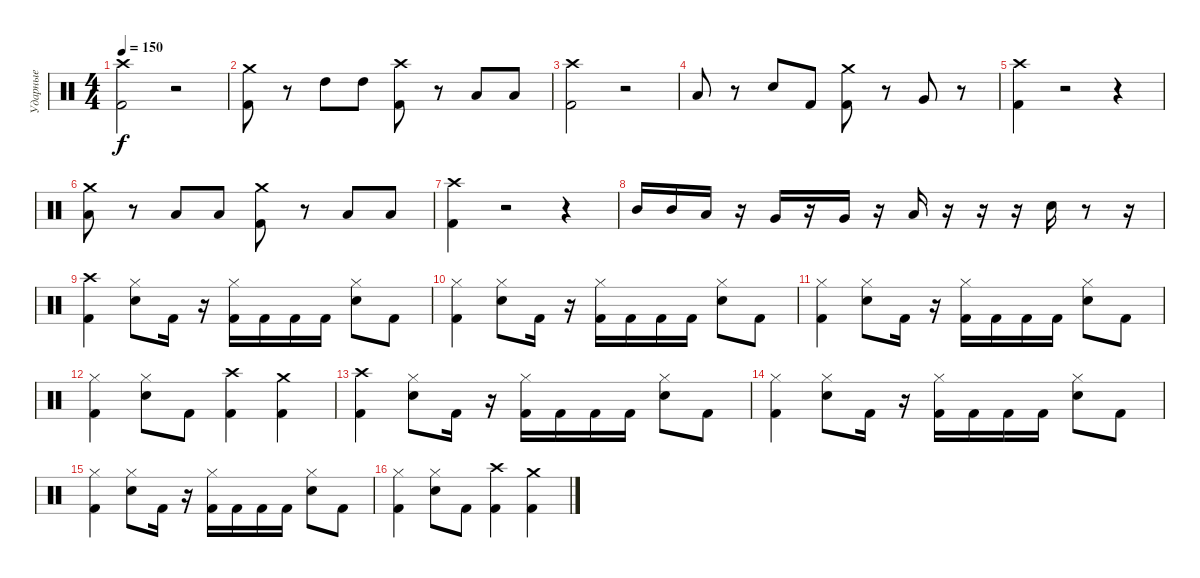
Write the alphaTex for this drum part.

\track ("Ударные" "Ударные") {instrument percussion}
\staff {score}
\articulation defaults
\ts (4 4)
\tempo 150
\clef neutral
\ks c
("Kick (hit) 2" "Crash high (hit)").2{dy f} r.2 |
("Kick (hit) 2" "Crash medium (hit)").8 r.8 "High Tom (hit)".8 "High Tom (hit)".8 ("Kick (hit) 2" "Crash high (hit)").8 r.8 "Low Tom (hit)".8 "Low Tom (hit)".8 |
("Kick (hit) 2" "Crash high (hit)").2 r.2 |
"Low Tom (hit)".8 r.8 "Electric Snare (hit)".8 "Kick (hit) 2".8 ("Kick (hit) 2" "Crash medium (hit)").8 r.8 "Very Low Tom (hit)".8 r.8 |
("Kick (hit) 2" "Crash high (hit)").4 r.2 r.4 |
("Low Tom (hit)" "Crash medium (hit)").8 r.8 "Low Floor Tom (hit)".8 "Low Floor Tom (hit)".8 ("Kick (hit) 2" "Crash medium (hit)").8 r.8 "Low Tom (hit)".8 "Low Tom (hit)".8 |
("Kick (hit) 2" "Crash high (hit)").4 r.2 r.4 |
"Mid Tom (hit)".16 "Mid Tom (hit)".16 "Low Tom (hit)".16 r.16 "Very Low Tom (hit)".16 r.16 "Very Low Tom (hit)".16 r.16 "Low Floor Tom (hit)".16 r.16 r.16 r.16 "Electric Snare (hit)".16 r.8 r.16 |
("Kick (hit) 2" "Crash high (hit)").4 ("Electric Snare (hit)" "Hi-Hat (closed)").8 "Kick (hit) 2".16 r.16 ("Kick (hit) 2" "Hi-Hat (closed)").16 "Kick (hit) 2".16 "Kick (hit) 2".16 "Kick (hit) 2".16 ("Electric Snare (hit)" "Hi-Hat (closed)").8 "Kick (hit) 2".8 |
("Kick (hit) 2" "Hi-Hat (closed)").4 ("Electric Snare (hit)" "Hi-Hat (closed)").8 "Kick (hit) 2".16 r.16 ("Kick (hit) 2" "Hi-Hat (closed)").16 "Kick (hit) 2".16 "Kick (hit) 2".16 "Kick (hit) 2".16 ("Electric Snare (hit)" "Hi-Hat (closed)").8 "Kick (hit) 2".8 |
("Kick (hit) 2" "Hi-Hat (closed)").4 ("Electric Snare (hit)" "Hi-Hat (closed)").8 "Kick (hit) 2".16 r.16 ("Kick (hit) 2" "Hi-Hat (closed)").16 "Kick (hit) 2".16 "Kick (hit) 2".16 "Kick (hit) 2".16 ("Electric Snare (hit)" "Hi-Hat (closed)").8 "Kick (hit) 2".8 |
("Kick (hit) 2" "Hi-Hat (closed)").4 ("Electric Snare (hit)" "Hi-Hat (closed)").8 "Kick (hit) 2".8 ("Kick (hit) 2" "Crash high (hit)").4 ("Kick (hit) 2" "Crash medium (hit)").4 |
("Kick (hit) 2" "Crash high (hit)").4 ("Electric Snare (hit)" "Hi-Hat (closed)").8 "Kick (hit) 2".16 r.16 ("Kick (hit) 2" "Hi-Hat (closed)").16 "Kick (hit) 2".16 "Kick (hit) 2".16 "Kick (hit) 2".16 ("Electric Snare (hit)" "Hi-Hat (closed)").8 "Kick (hit) 2".8 |
("Kick (hit) 2" "Hi-Hat (closed)").4 ("Electric Snare (hit)" "Hi-Hat (closed)").8 "Kick (hit) 2".16 r.16 ("Kick (hit) 2" "Hi-Hat (closed)").16 "Kick (hit) 2".16 "Kick (hit) 2".16 "Kick (hit) 2".16 ("Electric Snare (hit)" "Hi-Hat (closed)").8 "Kick (hit) 2".8 |
("Kick (hit) 2" "Hi-Hat (closed)").4 ("Electric Snare (hit)" "Hi-Hat (closed)").8 "Kick (hit) 2".16 r.16 ("Kick (hit) 2" "Hi-Hat (closed)").16 "Kick (hit) 2".16 "Kick (hit) 2".16 "Kick (hit) 2".16 ("Electric Snare (hit)" "Hi-Hat (closed)").8 "Kick (hit) 2".8 |
("Kick (hit) 2" "Hi-Hat (closed)").4 ("Electric Snare (hit)" "Hi-Hat (closed)").8 "Kick (hit) 2".8 ("Kick (hit) 2" "Crash high (hit)").4 ("Kick (hit) 2" "Crash medium (hit)").4
